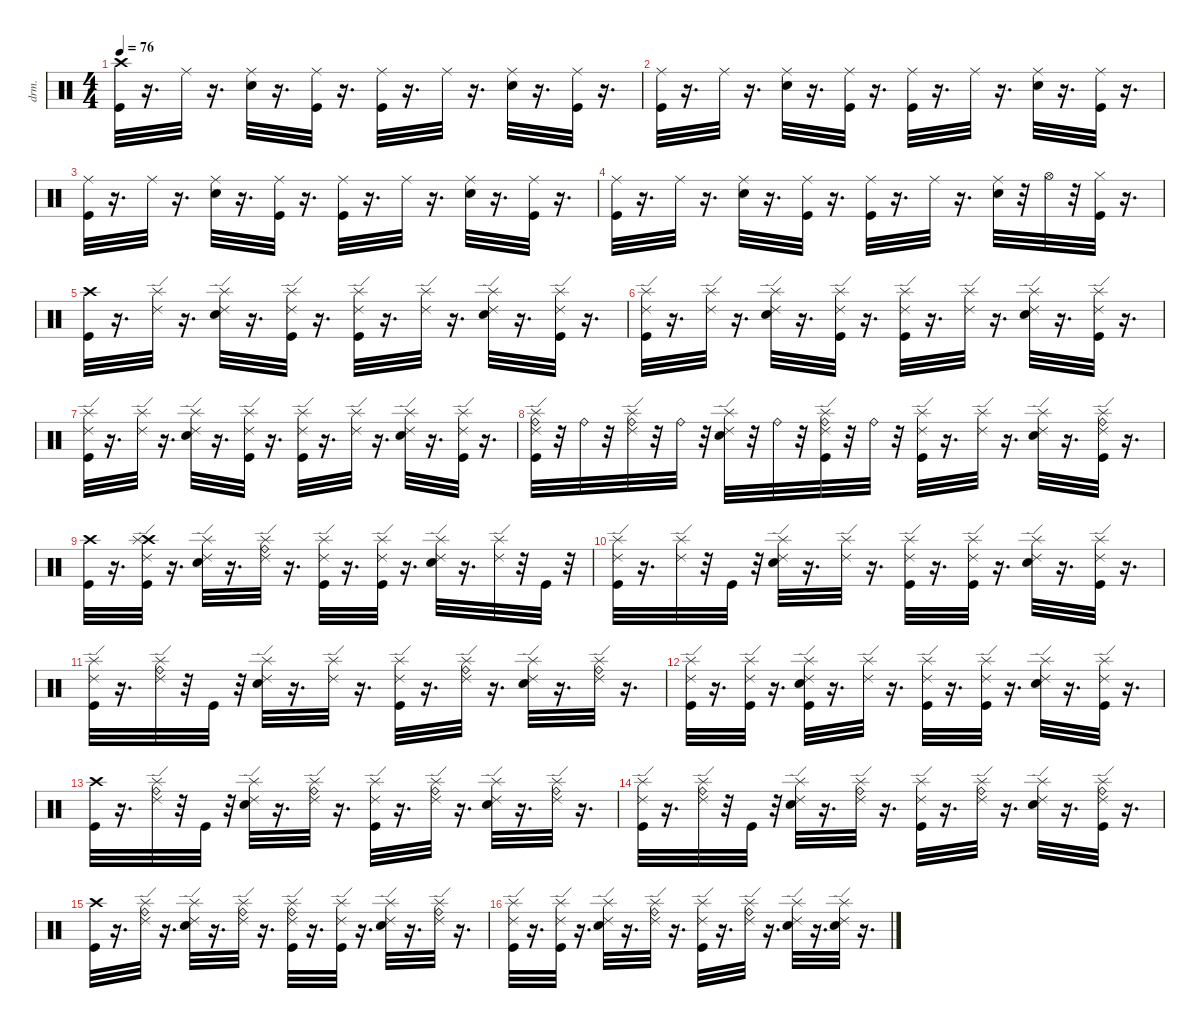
\defaultSystemsLayout 4
\hideDynamics
\bracketExtendMode nobrackets
\otherSystemsTrackNameOrientation horizontal
\track ("Drums" "drm.") {instrument percussion}
\staff {score}
\articulation defaults
\ts (4 4)
\tempo 76
\clef neutral
\ks c
("Kick (hit)" "Crash high (hit)").32{dy fff} r.16{d} "Ride (middle)".32 r.16{d} ("Ride (middle)" "Snare (hit) 2").32 r.16{d} ("Ride (middle)" "Kick (hit)").32 r.16{d} ("Ride (middle)" "Kick (hit)").32 r.16{d} "Ride (middle)".32 r.16{d} ("Ride (middle)" "Snare (hit) 2").32 r.16{d} ("Ride (middle)" "Kick (hit)").32 r.16{d} |
("Ride (middle)" "Kick (hit)").32 r.16{d} "Ride (middle)".32 r.16{d} ("Ride (middle)" "Snare (hit) 2").32 r.16{d} ("Ride (middle)" "Kick (hit)").32 r.16{d} ("Ride (middle)" "Kick (hit)").32 r.16{d} "Ride (middle)".32 r.16{d} ("Ride (middle)" "Snare (hit) 2").32 r.16{d} ("Ride (middle)" "Kick (hit)").32 r.16{d} |
("Ride (middle)" "Kick (hit)").32 r.16{d} "Ride (middle)".32 r.16{d} ("Ride (middle)" "Snare (hit) 2").32 r.16{d} ("Ride (middle)" "Kick (hit)").32 r.16{d} ("Ride (middle)" "Kick (hit)").32 r.16{d} "Ride (middle)".32 r.16{d} ("Ride (middle)" "Snare (hit) 2").32 r.16{d} ("Ride (middle)" "Kick (hit)").32 r.16{d} |
("Ride (middle)" "Kick (hit)").32 r.16{d} "Ride (middle)".32 r.16{d} ("Ride (middle)" "Snare (hit) 2").32 r.16{d} ("Ride (middle)" "Kick (hit)").32 r.16{d} ("Ride (middle)" "Kick (hit)").32 r.16{d} "Ride (middle)".32 r.16{d} ("Ride (middle)" "Snare (hit) 2").32 r.32 "Hi-Hat (open)".32 r.32 ("Hi-Hat (closed)" "Kick (hit)").32 r.16{d} |
("Kick (hit)" "Crash high (hit)").32 r.16{d} ("Ride (edge) 2" "Splash (hit)").32 r.16{d} ("Ride (edge) 2" "Splash (hit)" "Snare (hit) 2").32 r.16{d} ("Ride (edge) 2" "Splash (hit)" "Kick (hit)").32 r.16{d} ("Ride (edge) 2" "Splash (hit)" "Kick (hit)").32 r.16{d} ("Ride (edge) 2" "Splash (hit)").32 r.16{d} ("Ride (edge) 2" "Splash (hit)" "Snare (hit) 2").32 r.16{d} ("Ride (edge) 2" "Splash (hit)" "Kick (hit)").32 r.16{d} |
("Ride (edge) 2" "Splash (hit)" "Kick (hit)").32 r.16{d} ("Ride (edge) 2" "Splash (hit)").32 r.16{d} ("Ride (edge) 2" "Splash (hit)" "Snare (hit) 2").32 r.16{d} ("Ride (edge) 2" "Splash (hit)" "Kick (hit)").32 r.16{d} ("Ride (edge) 2" "Splash (hit)" "Kick (hit)").32 r.16{d} ("Ride (edge) 2" "Splash (hit)").32 r.16{d} ("Ride (edge) 2" "Splash (hit)" "Snare (hit) 2").32 r.16{d} ("Ride (edge) 2" "Splash (hit)" "Kick (hit)").32 r.16{d} |
("Ride (edge) 2" "Splash (hit)" "Kick (hit)").32 r.16{d} ("Ride (edge) 2" "Splash (hit)").32 r.16{d} ("Ride (edge) 2" "Splash (hit)" "Snare (hit) 2").32 r.16{d} ("Ride (edge) 2" "Splash (hit)" "Kick (hit)").32 r.16{d} ("Ride (edge) 2" "Splash (hit)" "Kick (hit)").32 r.16{d} ("Ride (edge) 2" "Splash (hit)").32 r.16{d} ("Ride (edge) 2" "Splash (hit)" "Snare (hit) 2").32 r.16{d} ("Ride (edge) 2" "Splash (hit)" "Kick (hit)").32 r.16{d} |
("Ride (bell)" "Ride (edge) 2" "Splash (hit)" "Kick (hit)").32{dy mf} r.32 "Ride (bell)".32 r.32 ("Ride (bell)" "Ride (edge) 2" "Splash (hit)").32 r.32 "Ride (bell)".32 r.32 ("Ride (edge) 2" "Splash (hit)" "Snare (hit) 2").32{dy fff} r.32 "Ride (bell)".32{dy mf} r.32 ("Ride (bell)" "Ride (edge) 2" "Splash (hit)" "Kick (hit)").32 r.32 "Ride (bell)".32 r.32 ("Ride (edge) 2" "Splash (hit)" "Kick (hit)").32{dy fff} r.16{d} ("Ride (edge) 2" "Splash (hit)").32 r.16{d} ("Ride (edge) 2" "Splash (hit)" "Snare (hit) 2").32 r.16{d} ("Ride (bell)" "Ride (edge) 2" "Splash (hit)" "Kick (hit)").32{dy mf} r.16{d} |
("Kick (hit)" "Crash high (hit)").32{dy fff} r.16{d} ("Kick (hit)" "Crash high (hit)" "Ride (edge) 2" "Splash (hit)").32 r.16{d} ("Ride (edge) 2" "Splash (hit)" "Snare (hit) 2").32 r.16{d} ("Ride (bell)" "Ride (edge) 2" "Splash (hit)").32 r.16{d} ("Ride (edge) 2" "Splash (hit)" "Kick (hit)").32 r.16{d} ("Kick (hit)" "Ride (edge) 2" "Splash (hit)").32 r.16{d} ("Ride (edge) 2" "Splash (hit)" "Snare (hit) 2").32 r.16{d} ("Ride (edge) 2" "Splash (hit)").32 r.32 "Kick (hit)".32 r.32 |
("Kick (hit)" "Ride (edge) 2" "Splash (hit)").32 r.16{d} ("Ride (edge) 2" "Splash (hit)").32 r.32 "Kick (hit)".32 r.32 ("Ride (edge) 2" "Splash (hit)" "Snare (hit) 2").32 r.16{d} ("Ride (edge) 2" "Splash (hit)").32 r.16{d} ("Ride (edge) 2" "Splash (hit)" "Kick (hit)").32 r.16{d} ("Kick (hit)" "Ride (edge) 2" "Splash (hit)").32 r.16{d} ("Ride (edge) 2" "Splash (hit)" "Snare (hit) 2").32 r.16{d} ("Ride (edge) 2" "Splash (hit)" "Kick (hit)").32 r.16{d} |
("Ride (edge) 2" "Splash (hit)" "Kick (hit)").32 r.16{d} ("Ride (bell)" "Ride (edge) 2" "Splash (hit)").32 r.32 "Kick (hit)".32 r.32 ("Ride (edge) 2" "Splash (hit)" "Snare (hit) 2").32 r.16{d} ("Ride (edge) 2" "Splash (hit)").32 r.16{d} ("Ride (edge) 2" "Splash (hit)" "Kick (hit)").32 r.16{d} ("Ride (bell)" "Ride (edge) 2" "Splash (hit)").32 r.16{d} ("Ride (edge) 2" "Splash (hit)" "Snare (hit) 2").32 r.16{d} ("Ride (bell)" "Ride (edge) 2" "Splash (hit)").32 r.16{d} |
("Ride (edge) 2" "Splash (hit)" "Kick (hit)").32 r.16{d} ("Kick (hit)" "Ride (edge) 2" "Splash (hit)").32 r.16{d} ("Kick (hit)" "Ride (edge) 2" "Splash (hit)" "Snare (hit) 2").32 r.16{d} ("Ride (edge) 2" "Splash (hit)").32 r.16{d} ("Ride (edge) 2" "Splash (hit)" "Kick (hit)").32 r.16{d} ("Kick (hit)" "Ride (edge) 2" "Splash (hit)").32 r.16{d} ("Ride (edge) 2" "Splash (hit)" "Snare (hit) 2").32 r.16{d} ("Ride (edge) 2" "Splash (hit)" "Kick (hit)").32 r.16{d} |
("Kick (hit)" "Crash high (hit)").32 r.16{d} ("Ride (bell)" "Ride (edge) 2" "Splash (hit)").32 r.32 "Kick (hit)".32 r.32 ("Ride (edge) 2" "Splash (hit)" "Snare (hit) 2").32 r.16{d} ("Ride (bell)" "Ride (edge) 2" "Splash (hit)").32 r.16{d} ("Ride (edge) 2" "Splash (hit)" "Kick (hit)").32 r.16{d} ("Ride (bell)" "Ride (edge) 2" "Splash (hit)").32 r.16{d} ("Ride (edge) 2" "Splash (hit)" "Snare (hit) 2").32 r.16{d} ("Ride (bell)" "Ride (edge) 2" "Splash (hit)").32 r.16{d} |
("Ride (edge) 2" "Splash (hit)" "Kick (hit)").32 r.16{d} ("Ride (bell)" "Ride (edge) 2" "Splash (hit)").32 r.32 "Kick (hit)".32 r.32 ("Ride (edge) 2" "Splash (hit)" "Snare (hit) 2").32 r.16{d} ("Ride (bell)" "Ride (edge) 2" "Splash (hit)").32 r.16{d} ("Ride (edge) 2" "Splash (hit)" "Kick (hit)").32 r.16{d} ("Ride (bell)" "Ride (edge) 2" "Splash (hit)").32 r.16{d} ("Ride (edge) 2" "Splash (hit)" "Snare (hit) 2").32 r.16{d} ("Ride (bell)" "Ride (edge) 2" "Splash (hit)" "Kick (hit)").32 r.16{d} |
("Kick (hit)" "Crash high (hit)").32 r.16{d} ("Ride (bell)" "Ride (edge) 2" "Splash (hit)").32 r.16{d} ("Ride (edge) 2" "Splash (hit)" "Snare (hit) 2").32 r.16{d} ("Ride (bell)" "Ride (edge) 2" "Splash (hit)").32 r.16{d} ("Ride (bell)" "Ride (edge) 2" "Splash (hit)" "Kick (hit)").32 r.16{d} ("Kick (hit)" "Ride (edge) 2" "Splash (hit)").32 r.16{d} ("Ride (edge) 2" "Splash (hit)" "Snare (hit) 2").32 r.16{d} ("Ride (bell)" "Ride (edge) 2" "Splash (hit)").32 r.16{d} |
("Ride (edge) 2" "Splash (hit)" "Kick (hit)").32 r.16{d} ("Kick (hit)" "Ride (edge) 2" "Splash (hit)").32 r.16{d} ("Ride (edge) 2" "Splash (hit)" "Snare (hit) 2").32 r.16{d} ("Ride (bell)" "Ride (edge) 2" "Splash (hit)").32 r.16{d} ("Ride (edge) 2" "Splash (hit)" "Kick (hit)").32 r.16{d} ("Ride (bell)" "Ride (edge) 2" "Splash (hit)").32 r.16{d} ("Ride (edge) 2" "Splash (hit)" "Snare (hit) 2").32 r.16{d} ("Snare (hit) 2" "Ride (edge) 2" "Splash (hit)").32 r.16{d}
